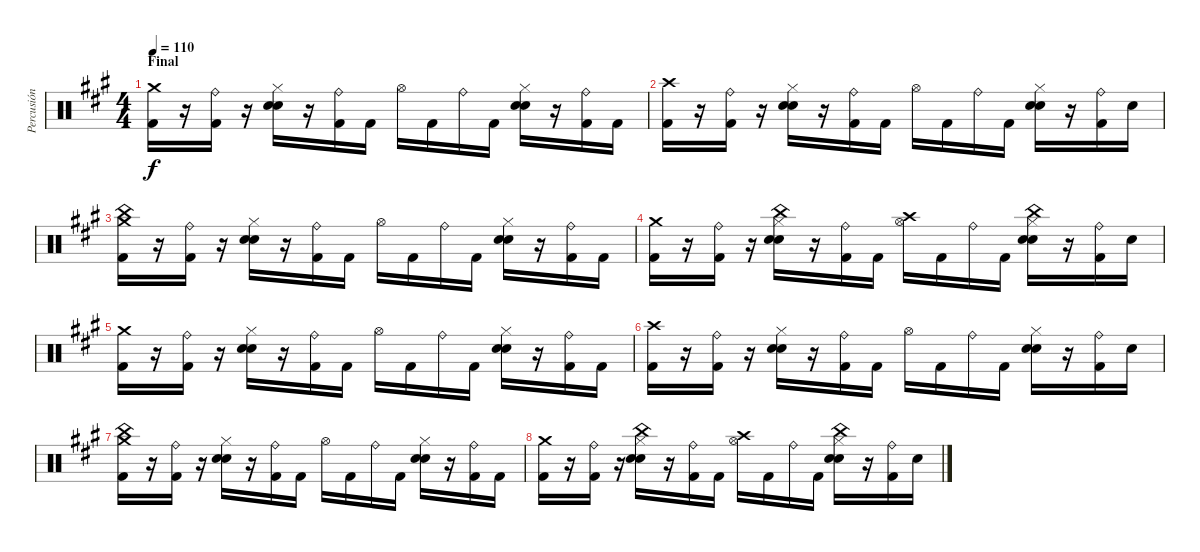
\track ("Percusión" "Percusión") {instrument percussion}
\staff {score}
\articulation defaults
\ts (4 4)
\section ("" "Final")
\tempo 110
\clef neutral
\ks a
("Crash medium (hit)" "Kick (hit) 2").16{dy f} r.16 ("Ride (bell)" "Kick (hit) 2").16 r.16 ("Hi-Hat (closed)" "Hand Clap (hit)" "Electric Snare (hit)").16 r.16 ("Ride (bell)" "Kick (hit) 2").16 "Kick (hit) 2".16 "Hi-Hat (open)".16 "Kick (hit) 2".16 "Ride (bell)".16 "Kick (hit) 2".16 ("Hi-Hat (closed)" "Hand Clap (hit)" "Electric Snare (hit)").16 r.16 ("Ride (bell)" "Kick (hit) 2").16 "Kick (hit) 2".16 |
("Crash high (hit)" "Kick (hit) 2").16 r.16 ("Ride (bell)" "Kick (hit) 2").16 r.16 ("Hi-Hat (closed)" "Hand Clap (hit)" "Electric Snare (hit)").16 r.16 ("Ride (bell)" "Kick (hit) 2").16 "Kick (hit) 2".16 "Hi-Hat (open)".16 "Kick (hit) 2".16 "Ride (bell)".16 "Kick (hit) 2".16 ("Hi-Hat (closed)" "Hand Clap (hit)" "Electric Snare (hit)").16 r.16 ("Ride (bell)" "Kick (hit) 2").16 "Hand Clap (hit)".16 |
("Crash medium (hit)" "China (hit)" "Kick (hit) 2").16 r.16 ("Ride (bell)" "Kick (hit) 2").16 r.16 ("Hi-Hat (closed)" "Hand Clap (hit)" "Electric Snare (hit)").16 r.16 ("Ride (bell)" "Kick (hit) 2").16 "Kick (hit) 2".16 "Hi-Hat (open)".16 "Kick (hit) 2".16 "Ride (bell)".16 "Kick (hit) 2".16 ("Hi-Hat (closed)" "Hand Clap (hit)" "Electric Snare (hit)").16 r.16 ("Ride (bell)" "Kick (hit) 2").16 "Kick (hit) 2".16 |
("Crash medium (hit)" "Kick (hit) 2").16 r.16 ("Ride (bell)" "Kick (hit) 2").16 r.16 ("China (hit)" "Hi-Hat (closed)" "Hand Clap (hit)" "Electric Snare (hit)").16 r.16 ("Ride (bell)" "Kick (hit) 2").16 "Kick (hit) 2".16 ("Crash high (hit)" "Hi-Hat (open)").16 "Kick (hit) 2".16 "Ride (bell)".16 "Kick (hit) 2".16 ("China (hit)" "Hi-Hat (closed)" "Hand Clap (hit)" "Electric Snare (hit)").16 r.16 ("Ride (bell)" "Kick (hit) 2").16 "Hand Clap (hit)".16 |
("Crash medium (hit)" "Kick (hit) 2").16 r.16 ("Ride (bell)" "Kick (hit) 2").16 r.16 ("Hi-Hat (closed)" "Hand Clap (hit)" "Electric Snare (hit)").16 r.16 ("Ride (bell)" "Kick (hit) 2").16 "Kick (hit) 2".16 "Hi-Hat (open)".16 "Kick (hit) 2".16 "Ride (bell)".16 "Kick (hit) 2".16 ("Hi-Hat (closed)" "Hand Clap (hit)" "Electric Snare (hit)").16 r.16 ("Ride (bell)" "Kick (hit) 2").16 "Kick (hit) 2".16 |
("Crash high (hit)" "Kick (hit) 2").16 r.16 ("Ride (bell)" "Kick (hit) 2").16 r.16 ("Hi-Hat (closed)" "Hand Clap (hit)" "Electric Snare (hit)").16 r.16 ("Ride (bell)" "Kick (hit) 2").16 "Kick (hit) 2".16 "Hi-Hat (open)".16 "Kick (hit) 2".16 "Ride (bell)".16 "Kick (hit) 2".16 ("Hi-Hat (closed)" "Hand Clap (hit)" "Electric Snare (hit)").16 r.16 ("Ride (bell)" "Kick (hit) 2").16 "Hand Clap (hit)".16 |
("Crash medium (hit)" "China (hit)" "Kick (hit) 2").16 r.16 ("Ride (bell)" "Kick (hit) 2").16 r.16 ("Hi-Hat (closed)" "Hand Clap (hit)" "Electric Snare (hit)").16 r.16 ("Ride (bell)" "Kick (hit) 2").16 "Kick (hit) 2".16 "Hi-Hat (open)".16 "Kick (hit) 2".16 "Ride (bell)".16 "Kick (hit) 2".16 ("Hi-Hat (closed)" "Hand Clap (hit)" "Electric Snare (hit)").16 r.16 ("Ride (bell)" "Kick (hit) 2").16 "Kick (hit) 2".16 |
("Crash medium (hit)" "Kick (hit) 2").16 r.16 ("Ride (bell)" "Kick (hit) 2").16 r.16 ("China (hit)" "Hi-Hat (closed)" "Hand Clap (hit)" "Electric Snare (hit)").16 r.16 ("Ride (bell)" "Kick (hit) 2").16 "Kick (hit) 2".16 ("Crash high (hit)" "Hi-Hat (open)").16 "Kick (hit) 2".16 "Ride (bell)".16 "Kick (hit) 2".16 ("China (hit)" "Hi-Hat (closed)" "Hand Clap (hit)" "Electric Snare (hit)").16 r.16 ("Ride (bell)" "Kick (hit) 2").16 "Hand Clap (hit)".16
